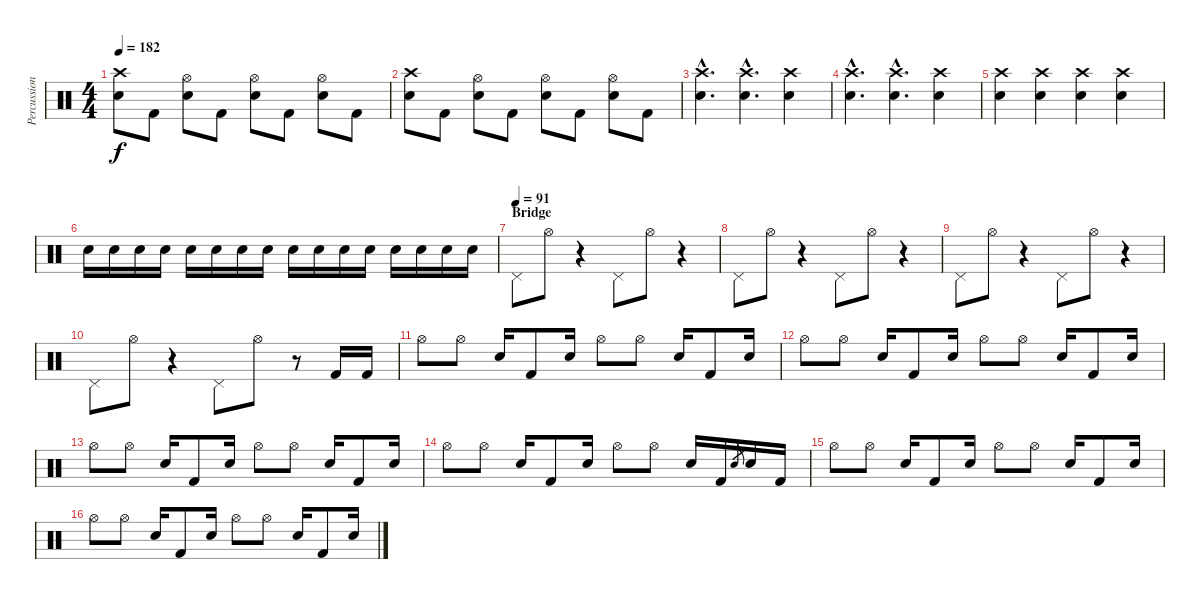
\track ("Percussion" "Percussion") {instrument percussion}
\staff {score}
\articulation defaults
\ts (4 4)
\tempo 182
\clef neutral
\ks c
("Crash high (hit)" "Snare (hit) 2").8{dy f} "Kick (hit) 2".8 ("Hi-Hat (open)" "Snare (hit) 2").8 "Kick (hit) 2".8 ("Hi-Hat (open)" "Snare (hit) 2").8 "Kick (hit) 2".8 ("Hi-Hat (open)" "Snare (hit) 2").8 "Kick (hit) 2".8 |
("Crash high (hit)" "Snare (hit) 2").8 "Kick (hit) 2".8 ("Hi-Hat (open)" "Snare (hit) 2").8 "Kick (hit) 2".8 ("Hi-Hat (open)" "Snare (hit) 2").8 "Kick (hit) 2".8 ("Hi-Hat (open)" "Snare (hit) 2").8 "Kick (hit) 2".8 |
("Crash high (hit)"{hac} "Snare (hit) 2"{hac}).4{d} ("Crash high (hit)"{hac} "Snare (hit) 2"{hac}).4{d} ("Crash high (hit)" "Snare (hit) 2").4 |
("Crash high (hit)"{hac} "Snare (hit) 2"{hac}).4{d} ("Crash high (hit)"{hac} "Snare (hit) 2"{hac}).4{d} ("Crash high (hit)" "Snare (hit) 2").4 |
("Crash high (hit)" "Snare (hit) 2").4 ("Crash high (hit)" "Snare (hit) 2").4 ("Crash high (hit)" "Snare (hit) 2").4 ("Crash high (hit)" "Snare (hit) 2").4 |
"Snare (hit) 2".16 "Snare (hit) 2".16 "Snare (hit) 2".16 "Snare (hit) 2".16 "Snare (hit) 2".16 "Snare (hit) 2".16 "Snare (hit) 2".16 "Snare (hit) 2".16 "Snare (hit) 2".16 "Snare (hit) 2".16 "Snare (hit) 2".16 "Snare (hit) 2".16 "Snare (hit) 2".16 "Snare (hit) 2".16 "Snare (hit) 2".16 "Snare (hit) 2".16 |
\section ("" "Bridge")
\tempo (91)
"Pedal Hi-Hat (hit)".8 "Hi-Hat (open)".8 r.4 "Pedal Hi-Hat (hit)".8 "Hi-Hat (open)".8 r.4 |
"Pedal Hi-Hat (hit)".8 "Hi-Hat (open)".8 r.4 "Pedal Hi-Hat (hit)".8 "Hi-Hat (open)".8 r.4 |
"Pedal Hi-Hat (hit)".8 "Hi-Hat (open)".8 r.4 "Pedal Hi-Hat (hit)".8 "Hi-Hat (open)".8 r.4 |
"Pedal Hi-Hat (hit)".8 "Hi-Hat (open)".8 r.4 "Pedal Hi-Hat (hit)".8 "Hi-Hat (open)".8 r.8 "Kick (hit) 2".16 "Kick (hit) 2".16 |
"Hi-Hat (open)".8 "Hi-Hat (open)".8 "Snare (hit) 2".16 "Kick (hit) 2".8 "Snare (hit) 2".16 "Hi-Hat (open)".8 "Hi-Hat (open)".8 "Snare (hit) 2".16 "Kick (hit) 2".8 "Snare (hit) 2".16 |
"Hi-Hat (open)".8 "Hi-Hat (open)".8 "Snare (hit) 2".16 "Kick (hit) 2".8 "Snare (hit) 2".16 "Hi-Hat (open)".8 "Hi-Hat (open)".8 "Snare (hit) 2".16 "Kick (hit) 2".8 "Snare (hit) 2".16 |
"Hi-Hat (open)".8 "Hi-Hat (open)".8 "Snare (hit) 2".16 "Kick (hit) 2".8 "Snare (hit) 2".16 "Hi-Hat (open)".8 "Hi-Hat (open)".8 "Snare (hit) 2".16 "Kick (hit) 2".8 "Snare (hit) 2".16 |
"Hi-Hat (open)".8 "Hi-Hat (open)".8 "Snare (hit) 2".16 "Kick (hit) 2".8 "Snare (hit) 2".16 "Hi-Hat (open)".8 "Hi-Hat (open)".8 "Snare (hit) 2".16 "Kick (hit) 2".16 "Snare (hit) 2".8{gr} "Snare (hit) 2".16 "Kick (hit) 2".16 |
"Hi-Hat (open)".8 "Hi-Hat (open)".8 "Snare (hit) 2".16 "Kick (hit) 2".8 "Snare (hit) 2".16 "Hi-Hat (open)".8 "Hi-Hat (open)".8 "Snare (hit) 2".16 "Kick (hit) 2".8 "Snare (hit) 2".16 |
"Hi-Hat (open)".8 "Hi-Hat (open)".8 "Snare (hit) 2".16 "Kick (hit) 2".8 "Snare (hit) 2".16 "Hi-Hat (open)".8 "Hi-Hat (open)".8 "Snare (hit) 2".16 "Kick (hit) 2".8 "Snare (hit) 2".16
